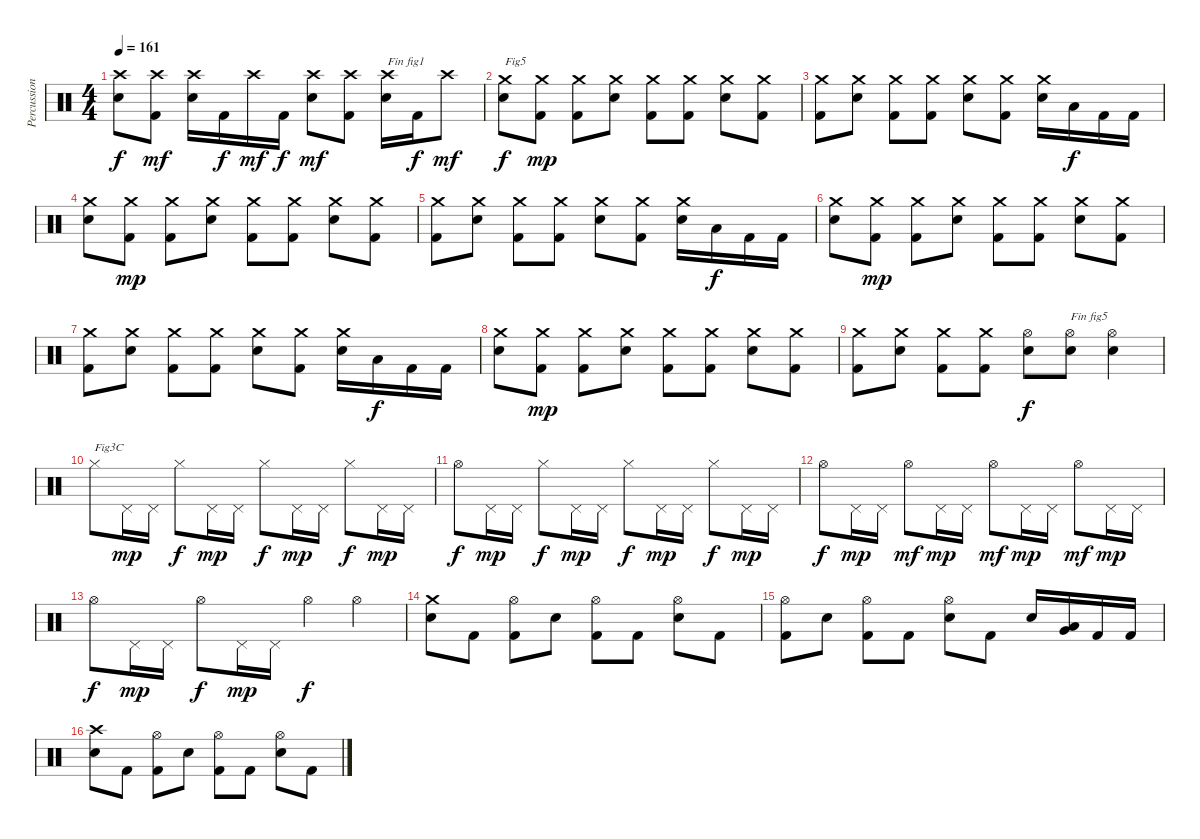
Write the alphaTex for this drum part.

\track ("Percussions" "Percussion") {instrument percussion}
\staff {score}
\articulation defaults
\ts (4 4)
\tempo 161
\clef neutral
\ks c
("Electric Snare (hit)" "Crash high (hit)").8{dy f} ("Kick (hit) 2" "Crash high (hit)").8{dy mf} ("Electric Snare (hit)" "Crash high (hit)").16 "Kick (hit) 2".16{dy f} "Crash high (hit)".16{dy mf} "Kick (hit) 2".16{dy f} ("Electric Snare (hit)" "Crash high (hit)").8{dy mf} ("Kick (hit) 2" "Crash high (hit)").8 ("Electric Snare (hit)" "Crash high (hit)").16{txt "Fin fig1"} "Kick (hit) 2".16{dy f} "Crash high (hit)".8{dy mf} |
("Electric Snare (hit)" "Crash medium (hit)").8{txt "Fig5" dy f} ("Kick (hit) 2" "Crash medium (hit)").8{dy mp} ("Kick (hit) 2" "Crash medium (hit)").8 ("Electric Snare (hit)" "Crash medium (hit)").8 ("Kick (hit) 2" "Crash medium (hit)").8 ("Kick (hit) 2" "Crash medium (hit)").8 ("Electric Snare (hit)" "Crash medium (hit)").8 ("Kick (hit) 2" "Crash medium (hit)").8 |
("Kick (hit) 2" "Crash medium (hit)").8 ("Electric Snare (hit)" "Crash medium (hit)").8 ("Kick (hit) 2" "Crash medium (hit)").8 ("Kick (hit) 2" "Crash medium (hit)").8 ("Electric Snare (hit)" "Crash medium (hit)").8 ("Kick (hit) 2" "Crash medium (hit)").8 ("Electric Snare (hit)" "Crash medium (hit)").16 "Low Tom (hit)".16{dy f} "Kick (hit) 2".16 "Kick (hit) 2".16 |
("Electric Snare (hit)" "Crash medium (hit)").8 ("Kick (hit) 2" "Crash medium (hit)").8{dy mp} ("Kick (hit) 2" "Crash medium (hit)").8 ("Electric Snare (hit)" "Crash medium (hit)").8 ("Kick (hit) 2" "Crash medium (hit)").8 ("Kick (hit) 2" "Crash medium (hit)").8 ("Electric Snare (hit)" "Crash medium (hit)").8 ("Kick (hit) 2" "Crash medium (hit)").8 |
("Kick (hit) 2" "Crash medium (hit)").8 ("Electric Snare (hit)" "Crash medium (hit)").8 ("Kick (hit) 2" "Crash medium (hit)").8 ("Kick (hit) 2" "Crash medium (hit)").8 ("Electric Snare (hit)" "Crash medium (hit)").8 ("Kick (hit) 2" "Crash medium (hit)").8 ("Electric Snare (hit)" "Crash medium (hit)").16 "Low Tom (hit)".16{dy f} "Kick (hit) 2".16 "Kick (hit) 2".16 |
("Electric Snare (hit)" "Crash medium (hit)").8 ("Kick (hit) 2" "Crash medium (hit)").8{dy mp} ("Kick (hit) 2" "Crash medium (hit)").8 ("Electric Snare (hit)" "Crash medium (hit)").8 ("Kick (hit) 2" "Crash medium (hit)").8 ("Kick (hit) 2" "Crash medium (hit)").8 ("Electric Snare (hit)" "Crash medium (hit)").8 ("Kick (hit) 2" "Crash medium (hit)").8 |
("Kick (hit) 2" "Crash medium (hit)").8 ("Electric Snare (hit)" "Crash medium (hit)").8 ("Kick (hit) 2" "Crash medium (hit)").8 ("Kick (hit) 2" "Crash medium (hit)").8 ("Electric Snare (hit)" "Crash medium (hit)").8 ("Kick (hit) 2" "Crash medium (hit)").8 ("Electric Snare (hit)" "Crash medium (hit)").16 "Low Tom (hit)".16{dy f} "Kick (hit) 2".16 "Kick (hit) 2".16 |
("Electric Snare (hit)" "Crash medium (hit)").8 ("Kick (hit) 2" "Crash medium (hit)").8{dy mp} ("Kick (hit) 2" "Crash medium (hit)").8 ("Electric Snare (hit)" "Crash medium (hit)").8 ("Kick (hit) 2" "Crash medium (hit)").8 ("Kick (hit) 2" "Crash medium (hit)").8 ("Electric Snare (hit)" "Crash medium (hit)").8 ("Kick (hit) 2" "Crash medium (hit)").8 |
("Kick (hit) 2" "Crash medium (hit)").8 ("Electric Snare (hit)" "Crash medium (hit)").8 ("Kick (hit) 2" "Crash medium (hit)").8 ("Kick (hit) 2" "Crash medium (hit)").8 ("Electric Snare (hit)" "Hi-Hat (open)").8{dy f} ("Electric Snare (hit)" "Hi-Hat (open)").8{txt "Fin fig5"} ("Electric Snare (hit)" "Hi-Hat (open)").4 |
"Hi-Hat (closed)".8{txt "Fig3C"} "Pedal Hi-Hat (hit)".16{dy mp} "Pedal Hi-Hat (hit)".16 "Hi-Hat (closed)".8{dy f} "Pedal Hi-Hat (hit)".16{dy mp} "Pedal Hi-Hat (hit)".16 "Hi-Hat (closed)".8{dy f} "Pedal Hi-Hat (hit)".16{dy mp} "Pedal Hi-Hat (hit)".16 "Hi-Hat (closed)".8{dy f} "Pedal Hi-Hat (hit)".16{dy mp} "Pedal Hi-Hat (hit)".16 |
"Hi-Hat (open)".8{dy f} "Pedal Hi-Hat (hit)".16{dy mp} "Pedal Hi-Hat (hit)".16 "Hi-Hat (closed)".8{dy f} "Pedal Hi-Hat (hit)".16{dy mp} "Pedal Hi-Hat (hit)".16 "Hi-Hat (closed)".8{dy f} "Pedal Hi-Hat (hit)".16{dy mp} "Pedal Hi-Hat (hit)".16 "Hi-Hat (closed)".8{dy f} "Pedal Hi-Hat (hit)".16{dy mp} "Pedal Hi-Hat (hit)".16 |
"Hi-Hat (open)".8{dy f} "Pedal Hi-Hat (hit)".16{dy mp} "Pedal Hi-Hat (hit)".16 "Hi-Hat (open)".8{dy mf} "Pedal Hi-Hat (hit)".16{dy mp} "Pedal Hi-Hat (hit)".16 "Hi-Hat (open)".8{dy mf} "Pedal Hi-Hat (hit)".16{dy mp} "Pedal Hi-Hat (hit)".16 "Hi-Hat (open)".8{dy mf} "Pedal Hi-Hat (hit)".16{dy mp} "Pedal Hi-Hat (hit)".16 |
"Hi-Hat (open)".8{dy f} "Pedal Hi-Hat (hit)".16{dy mp} "Pedal Hi-Hat (hit)".16 "Hi-Hat (open)".8{dy f} "Pedal Hi-Hat (hit)".16{dy mp} "Pedal Hi-Hat (hit)".16 "Hi-Hat (open)".4{dy f} "Hi-Hat (open)".4 |
("Electric Snare (hit)" "Crash medium (hit)").8 "Kick (hit) 2".8 ("Kick (hit) 2" "Hi-Hat (open)").8 "Electric Snare (hit)".8 ("Kick (hit) 2" "Hi-Hat (open)").8 "Kick (hit) 2".8 ("Electric Snare (hit)" "Hi-Hat (open)").8 "Kick (hit) 2".8 |
("Kick (hit) 2" "Hi-Hat (open)").8 "Electric Snare (hit)".8 ("Kick (hit) 2" "Hi-Hat (open)").8 "Kick (hit) 2".8 ("Electric Snare (hit)" "Hi-Hat (open)").8 "Kick (hit) 2".8 "Electric Snare (hit)".16 ("Very Low Tom (hit)" "Low Tom (hit)").16 "Kick (hit) 2".16 "Kick (hit) 2".16 |
("Electric Snare (hit)" "Crash high (hit)").8 "Kick (hit) 2".8 ("Kick (hit) 2" "Hi-Hat (open)").8 "Electric Snare (hit)".8 ("Kick (hit) 2" "Hi-Hat (open)").8 "Kick (hit) 2".8 ("Electric Snare (hit)" "Hi-Hat (open)").8 "Kick (hit) 2".8
